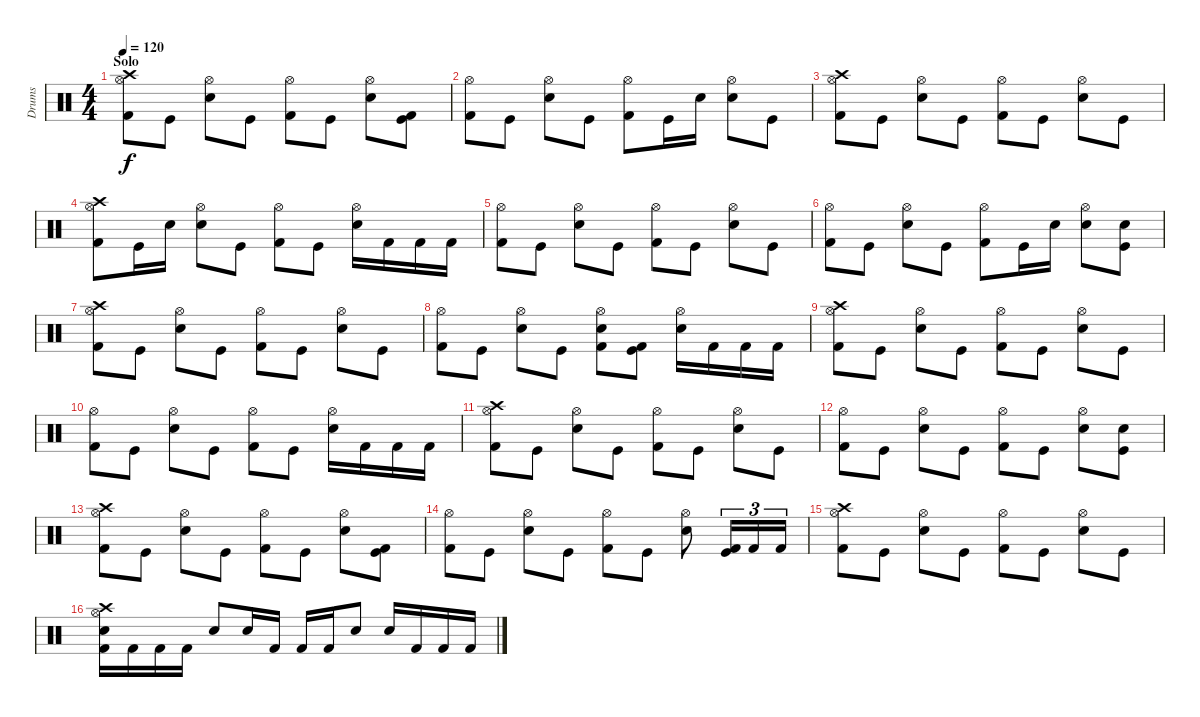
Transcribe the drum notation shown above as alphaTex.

\track ("Drums" "Drums") {instrument percussion}
\staff {score}
\articulation defaults
\ts (4 4)
\section ("" "Solo")
\tempo 120
\clef neutral
\ks c
("Hi-Hat (open)" "Kick (hit) 2" "Crash high (hit)").8{dy f} "Kick (hit)".8 ("Hi-Hat (open)" "Electric Snare (hit)").8 "Kick (hit)".8 ("Hi-Hat (open)" "Kick (hit) 2").8 "Kick (hit)".8 ("Hi-Hat (open)" "Electric Snare (hit)").8 ("Kick (hit)" "Kick (hit) 2").8 |
("Hi-Hat (open)" "Kick (hit) 2").8 "Kick (hit)".8 ("Hi-Hat (open)" "Electric Snare (hit)").8 "Kick (hit)".8 ("Hi-Hat (open)" "Kick (hit) 2").8 "Kick (hit)".16 "Electric Snare (hit)".16 ("Hi-Hat (open)" "Electric Snare (hit)").8 "Kick (hit)".8 |
("Hi-Hat (open)" "Kick (hit) 2" "Crash high (hit)").8 "Kick (hit)".8 ("Hi-Hat (open)" "Electric Snare (hit)").8 "Kick (hit)".8 ("Hi-Hat (open)" "Kick (hit) 2").8 "Kick (hit)".8 ("Hi-Hat (open)" "Electric Snare (hit)").8 "Kick (hit)".8 |
("Hi-Hat (open)" "Kick (hit) 2" "Crash high (hit)").8 "Kick (hit)".16 "Electric Snare (hit)".16 ("Hi-Hat (open)" "Electric Snare (hit)").8 "Kick (hit)".8 ("Hi-Hat (open)" "Kick (hit) 2").8 "Kick (hit)".8 ("Hi-Hat (open)" "Electric Snare (hit)").16 "Kick (hit) 2".16 "Kick (hit) 2".16 "Kick (hit) 2".16 |
("Hi-Hat (open)" "Kick (hit) 2").8 "Kick (hit)".8 ("Hi-Hat (open)" "Electric Snare (hit)").8 "Kick (hit)".8 ("Hi-Hat (open)" "Kick (hit) 2").8 "Kick (hit)".8 ("Hi-Hat (open)" "Electric Snare (hit)").8 "Kick (hit)".8 |
("Hi-Hat (open)" "Kick (hit) 2").8 "Kick (hit)".8 ("Hi-Hat (open)" "Electric Snare (hit)").8 "Kick (hit)".8 ("Hi-Hat (open)" "Kick (hit) 2").8 "Kick (hit)".16 "Electric Snare (hit)".16 ("Hi-Hat (open)" "Electric Snare (hit)").8 ("Kick (hit)" "Electric Snare (hit)").8 |
("Hi-Hat (open)" "Kick (hit) 2" "Crash high (hit)").8 "Kick (hit)".8 ("Hi-Hat (open)" "Electric Snare (hit)").8 "Kick (hit)".8 ("Hi-Hat (open)" "Kick (hit) 2").8 "Kick (hit)".8 ("Hi-Hat (open)" "Electric Snare (hit)").8 "Kick (hit)".8 |
("Hi-Hat (open)" "Kick (hit) 2").8 "Kick (hit)".8 ("Hi-Hat (open)" "Electric Snare (hit)").8 "Kick (hit)".8 ("Hi-Hat (open)" "Kick (hit) 2" "Electric Snare (hit)").8 ("Kick (hit)" "Kick (hit) 2").8 ("Hi-Hat (open)" "Electric Snare (hit)").16 "Kick (hit) 2".16 "Kick (hit) 2".16 "Kick (hit) 2".16 |
("Hi-Hat (open)" "Kick (hit) 2" "Crash high (hit)").8 "Kick (hit)".8 ("Hi-Hat (open)" "Electric Snare (hit)").8 "Kick (hit)".8 ("Hi-Hat (open)" "Kick (hit) 2").8 "Kick (hit)".8 ("Hi-Hat (open)" "Electric Snare (hit)").8 "Kick (hit)".8 |
("Hi-Hat (open)" "Kick (hit) 2").8 "Kick (hit)".8 ("Hi-Hat (open)" "Electric Snare (hit)").8 "Kick (hit)".8 ("Hi-Hat (open)" "Kick (hit) 2").8 "Kick (hit)".8 ("Hi-Hat (open)" "Electric Snare (hit)").16 "Kick (hit) 2".16 "Kick (hit) 2".16 "Kick (hit) 2".16 |
("Hi-Hat (open)" "Kick (hit) 2" "Crash high (hit)").8 "Kick (hit)".8 ("Hi-Hat (open)" "Electric Snare (hit)").8 "Kick (hit)".8 ("Hi-Hat (open)" "Kick (hit) 2").8 "Kick (hit)".8 ("Hi-Hat (open)" "Electric Snare (hit)").8 "Kick (hit)".8 |
("Hi-Hat (open)" "Kick (hit) 2").8 "Kick (hit)".8 ("Hi-Hat (open)" "Electric Snare (hit)").8 "Kick (hit)".8 ("Hi-Hat (open)" "Kick (hit) 2").8 "Kick (hit)".8 ("Hi-Hat (open)" "Electric Snare (hit)").8 ("Kick (hit)" "Electric Snare (hit)").8 |
("Hi-Hat (open)" "Kick (hit) 2" "Crash high (hit)").8 "Kick (hit)".8 ("Hi-Hat (open)" "Electric Snare (hit)").8 "Kick (hit)".8 ("Hi-Hat (open)" "Kick (hit) 2").8 "Kick (hit)".8 ("Hi-Hat (open)" "Electric Snare (hit)").8 ("Kick (hit)" "Kick (hit) 2").8 |
("Hi-Hat (open)" "Kick (hit) 2").8 "Kick (hit)".8 ("Hi-Hat (open)" "Electric Snare (hit)").8 "Kick (hit)".8 ("Hi-Hat (open)" "Kick (hit) 2").8 "Kick (hit)".8 ("Hi-Hat (open)" "Electric Snare (hit)").8 ("Kick (hit)" "Kick (hit) 2").16{tu (3 2)} "Kick (hit) 2".16{tu (3 2)} "Kick (hit) 2".16{tu (3 2)} |
("Hi-Hat (open)" "Kick (hit) 2" "Crash high (hit)").8 "Kick (hit)".8 ("Hi-Hat (open)" "Electric Snare (hit)").8 "Kick (hit)".8 ("Hi-Hat (open)" "Kick (hit) 2").8 "Kick (hit)".8 ("Hi-Hat (open)" "Electric Snare (hit)").8 "Kick (hit)".8 |
("Hi-Hat (open)" "Kick (hit) 2" "Crash high (hit)" "Electric Snare (hit)").16 "Kick (hit) 2".16 "Kick (hit) 2".16 "Kick (hit) 2".16 "Snare (hit) 2".8 "Electric Snare (hit)".16 "Kick (hit) 2".16 "Kick (hit) 2".16 "Kick (hit) 2".16 "Electric Snare (hit)".8 "Electric Snare (hit)".16 "Kick (hit) 2".16 "Kick (hit) 2".16 "Kick (hit) 2".16
